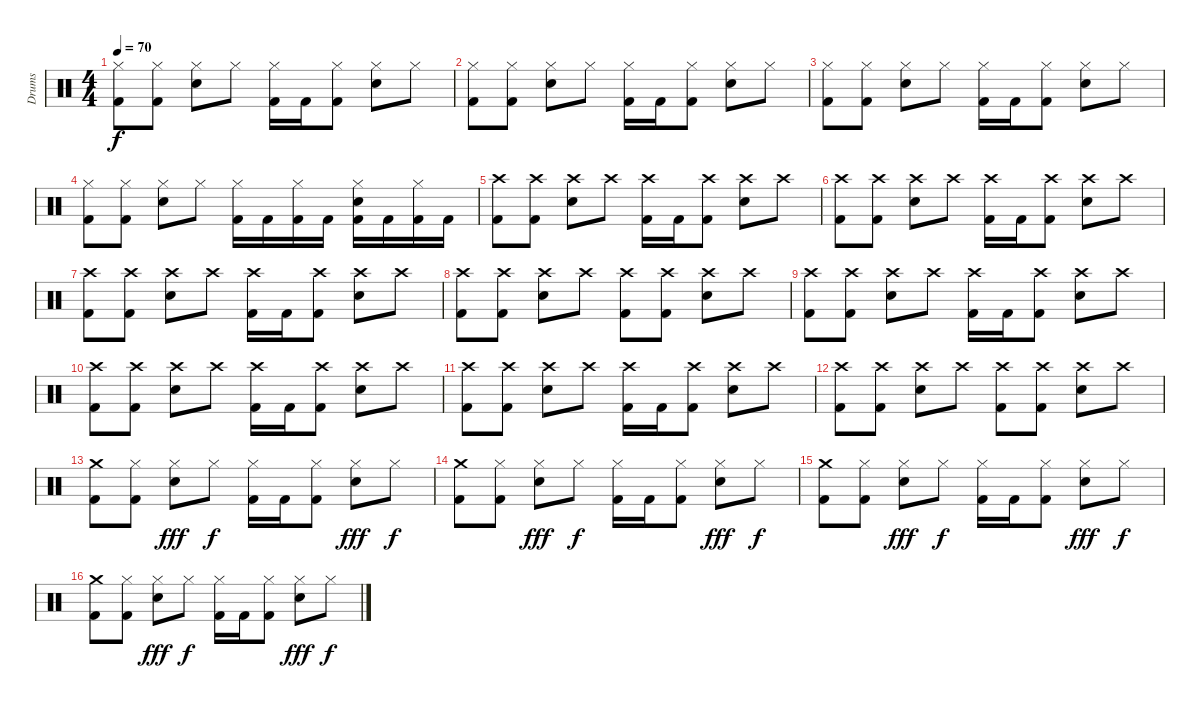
\track ("Drums" "Drums") {instrument percussion}
\staff {score}
\articulation defaults
\ts (4 4)
\tempo 70
\clef neutral
\ks c
("Hi-Hat (closed)" "Kick (hit) 2").8{dy f} ("Hi-Hat (closed)" "Kick (hit) 2").8 ("Hi-Hat (closed)" "Snare (hit) 2").8 "Hi-Hat (closed)".8 ("Hi-Hat (closed)" "Kick (hit) 2").16 "Kick (hit) 2".16 ("Hi-Hat (closed)" "Kick (hit) 2").8 ("Hi-Hat (closed)" "Snare (hit) 2").8 "Hi-Hat (closed)".8 |
("Hi-Hat (closed)" "Kick (hit) 2").8 ("Hi-Hat (closed)" "Kick (hit) 2").8 ("Hi-Hat (closed)" "Snare (hit) 2").8 "Hi-Hat (closed)".8 ("Hi-Hat (closed)" "Kick (hit) 2").16 "Kick (hit) 2".16 ("Hi-Hat (closed)" "Kick (hit) 2").8 ("Hi-Hat (closed)" "Snare (hit) 2").8 "Hi-Hat (closed)".8 |
("Hi-Hat (closed)" "Kick (hit) 2").8 ("Hi-Hat (closed)" "Kick (hit) 2").8 ("Hi-Hat (closed)" "Snare (hit) 2").8 "Hi-Hat (closed)".8 ("Hi-Hat (closed)" "Kick (hit) 2").16 "Kick (hit) 2".16 ("Hi-Hat (closed)" "Kick (hit) 2").8 ("Hi-Hat (closed)" "Snare (hit) 2").8 "Hi-Hat (closed)".8 |
("Hi-Hat (closed)" "Kick (hit) 2").8 ("Hi-Hat (closed)" "Kick (hit) 2").8 ("Hi-Hat (closed)" "Snare (hit) 2").8 "Hi-Hat (closed)".8 ("Hi-Hat (closed)" "Kick (hit) 2").16 "Kick (hit) 2".16 ("Hi-Hat (closed)" "Kick (hit) 2").16 "Kick (hit) 2".16 ("Hi-Hat (closed)" "Snare (hit) 2" "Kick (hit) 2").16 "Kick (hit) 2".16 ("Hi-Hat (closed)" "Kick (hit) 2").16 "Kick (hit) 2".16 |
("Crash high (hit)" "Kick (hit) 2").8 ("Crash high (hit)" "Kick (hit) 2").8 ("Crash high (hit)" "Electric Snare (hit)").8 "Crash high (hit)".8 ("Crash high (hit)" "Kick (hit) 2").16 "Kick (hit) 2".16 ("Crash high (hit)" "Kick (hit) 2").8 ("Crash high (hit)" "Electric Snare (hit)").8 "Crash high (hit)".8 |
("Crash high (hit)" "Kick (hit) 2").8 ("Crash high (hit)" "Kick (hit) 2").8 ("Crash high (hit)" "Electric Snare (hit)").8 "Crash high (hit)".8 ("Crash high (hit)" "Kick (hit) 2").16 "Kick (hit) 2".16 ("Crash high (hit)" "Kick (hit) 2").8 ("Crash high (hit)" "Electric Snare (hit)").8 "Crash high (hit)".8 |
("Crash high (hit)" "Kick (hit) 2").8 ("Crash high (hit)" "Kick (hit) 2").8 ("Crash high (hit)" "Electric Snare (hit)").8 "Crash high (hit)".8 ("Crash high (hit)" "Kick (hit) 2").16 "Kick (hit) 2".16 ("Crash high (hit)" "Kick (hit) 2").8 ("Crash high (hit)" "Electric Snare (hit)").8 "Crash high (hit)".8 |
("Crash high (hit)" "Kick (hit) 2").8 ("Crash high (hit)" "Kick (hit) 2").8 ("Crash high (hit)" "Electric Snare (hit)").8 "Crash high (hit)".8 ("Crash high (hit)" "Kick (hit) 2").8 ("Crash high (hit)" "Kick (hit) 2").8 ("Crash high (hit)" "Electric Snare (hit)").8 "Crash high (hit)".8 |
("Crash high (hit)" "Kick (hit) 2").8 ("Crash high (hit)" "Kick (hit) 2").8 ("Crash high (hit)" "Electric Snare (hit)").8 "Crash high (hit)".8 ("Crash high (hit)" "Kick (hit) 2").16 "Kick (hit) 2".16 ("Crash high (hit)" "Kick (hit) 2").8 ("Crash high (hit)" "Electric Snare (hit)").8 "Crash high (hit)".8 |
("Crash high (hit)" "Kick (hit) 2").8 ("Crash high (hit)" "Kick (hit) 2").8 ("Crash high (hit)" "Electric Snare (hit)").8 "Crash high (hit)".8 ("Crash high (hit)" "Kick (hit) 2").16 "Kick (hit) 2".16 ("Crash high (hit)" "Kick (hit) 2").8 ("Crash high (hit)" "Electric Snare (hit)").8 "Crash high (hit)".8 |
("Crash high (hit)" "Kick (hit) 2").8 ("Crash high (hit)" "Kick (hit) 2").8 ("Crash high (hit)" "Electric Snare (hit)").8 "Crash high (hit)".8 ("Crash high (hit)" "Kick (hit) 2").16 "Kick (hit) 2".16 ("Crash high (hit)" "Kick (hit) 2").8 ("Crash high (hit)" "Electric Snare (hit)").8 "Crash high (hit)".8 |
("Crash high (hit)" "Kick (hit) 2").8 ("Crash high (hit)" "Kick (hit) 2").8 ("Crash high (hit)" "Electric Snare (hit)").8 "Crash high (hit)".8 ("Crash high (hit)" "Kick (hit) 2").8 ("Crash high (hit)" "Kick (hit) 2").8 ("Crash high (hit)" "Electric Snare (hit)").8 "Crash high (hit)".8 |
("Crash medium (hit)" "Kick (hit) 2").8 ("Hi-Hat (closed)" "Kick (hit) 2").8 ("Hi-Hat (closed)" "Electric Snare (hit)").8{dy fff} "Hi-Hat (closed)".8{dy f} ("Hi-Hat (closed)" "Kick (hit) 2").16 "Kick (hit) 2".16 ("Hi-Hat (closed)" "Kick (hit) 2").8 ("Hi-Hat (closed)" "Electric Snare (hit)").8{dy fff} "Hi-Hat (closed)".8{dy f} |
("Crash medium (hit)" "Kick (hit) 2").8 ("Hi-Hat (closed)" "Kick (hit) 2").8 ("Hi-Hat (closed)" "Electric Snare (hit)").8{dy fff} "Hi-Hat (closed)".8{dy f} ("Hi-Hat (closed)" "Kick (hit) 2").16 "Kick (hit) 2".16 ("Hi-Hat (closed)" "Kick (hit) 2").8 ("Hi-Hat (closed)" "Electric Snare (hit)").8{dy fff} "Hi-Hat (closed)".8{dy f} |
("Crash medium (hit)" "Kick (hit) 2").8 ("Hi-Hat (closed)" "Kick (hit) 2").8 ("Hi-Hat (closed)" "Electric Snare (hit)").8{dy fff} "Hi-Hat (closed)".8{dy f} ("Hi-Hat (closed)" "Kick (hit) 2").16 "Kick (hit) 2".16 ("Hi-Hat (closed)" "Kick (hit) 2").8 ("Hi-Hat (closed)" "Electric Snare (hit)").8{dy fff} "Hi-Hat (closed)".8{dy f} |
("Crash medium (hit)" "Kick (hit) 2").8 ("Hi-Hat (closed)" "Kick (hit) 2").8 ("Hi-Hat (closed)" "Electric Snare (hit)").8{dy fff} "Hi-Hat (closed)".8{dy f} ("Hi-Hat (closed)" "Kick (hit) 2").16 "Kick (hit) 2".16 ("Hi-Hat (closed)" "Kick (hit) 2").8 ("Hi-Hat (closed)" "Electric Snare (hit)").8{dy fff} "Hi-Hat (closed)".8{dy f}
